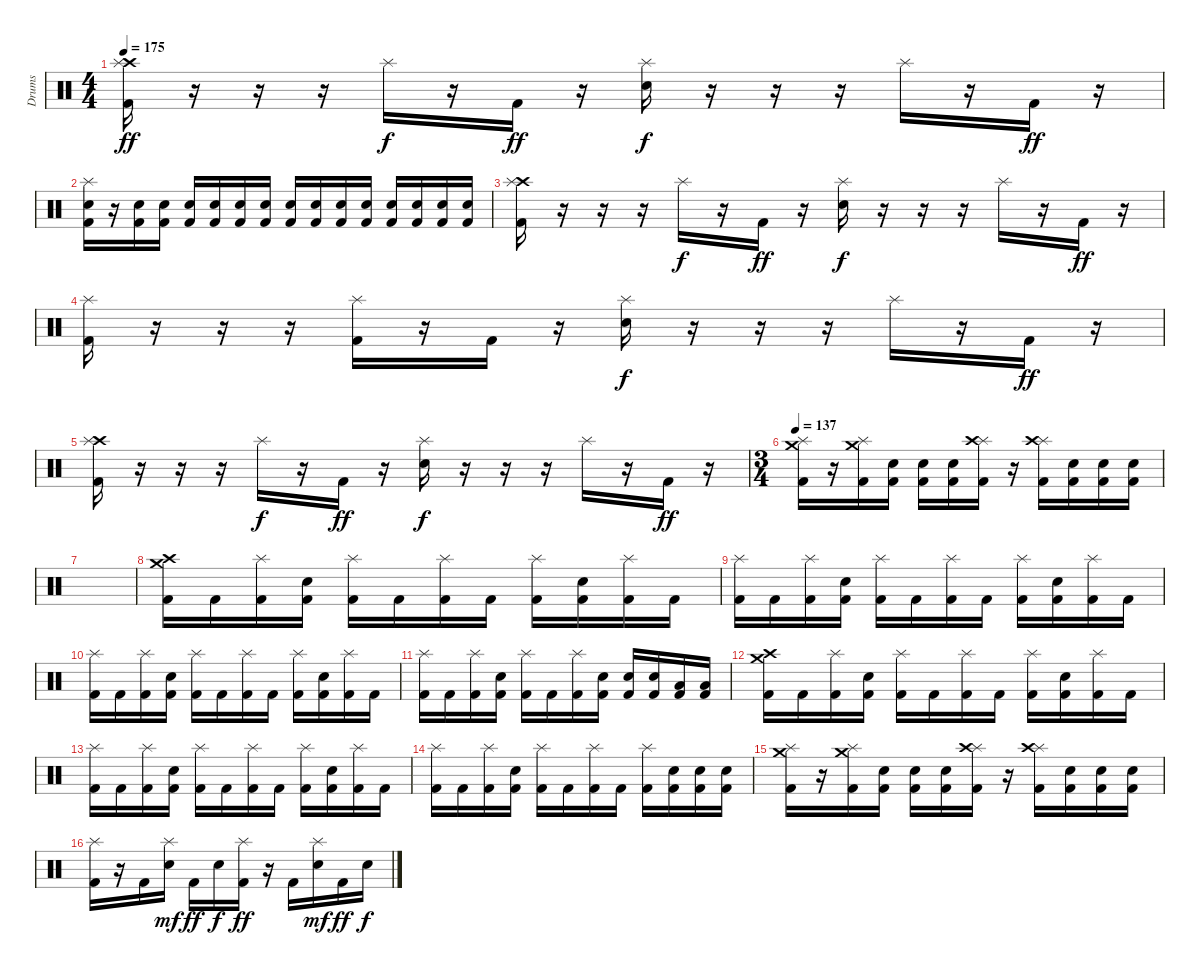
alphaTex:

\track ("Drums" "Drums") {instrument percussion}
\staff {score}
\articulation defaults
\ts (4 4)
\tempo 175
\clef neutral
\ks c
("Crash high (hit)" "Splash (hit)" "Kick (hit) 2").16{dy ff} r.16 r.16 r.16 "Splash (hit)".16{dy f} r.16 "Kick (hit) 2".16{dy ff} r.16 ("Splash (hit)" "Snare (hit) 2").16{dy f} r.16 r.16 r.16 "Splash (hit)".16 r.16 "Kick (hit) 2".16{dy ff} r.16 |
("Splash (hit)" "Snare (hit) 2" "Kick (hit) 2").16 r.16 ("Snare (hit) 2" "Kick (hit) 2").16 ("Snare (hit) 2" "Kick (hit) 2").16 ("Snare (hit) 2" "Kick (hit) 2").16 ("Snare (hit) 2" "Kick (hit) 2").16 ("Snare (hit) 2" "Kick (hit) 2").16 ("Snare (hit) 2" "Kick (hit) 2").16 ("Snare (hit) 2" "Kick (hit) 2").16 ("Snare (hit) 2" "Kick (hit) 2").16 ("Snare (hit) 2" "Kick (hit) 2").16 ("Snare (hit) 2" "Kick (hit) 2").16 ("Snare (hit) 2" "Kick (hit) 2").16 ("Snare (hit) 2" "Kick (hit) 2").16 ("Snare (hit) 2" "Kick (hit) 2").16 ("Snare (hit) 2" "Kick (hit) 2").16 |
("Crash high (hit)" "Splash (hit)" "Kick (hit) 2").16 r.16 r.16 r.16 "Splash (hit)".16{dy f} r.16 "Kick (hit) 2".16{dy ff} r.16 ("Splash (hit)" "Snare (hit) 2").16{dy f} r.16 r.16 r.16 "Splash (hit)".16 r.16 "Kick (hit) 2".16{dy ff} r.16 |
("Splash (hit)" "Kick (hit) 2").16 r.16 r.16 r.16 ("Splash (hit)" "Kick (hit) 2").16 r.16 "Kick (hit) 2".16 r.16 ("Splash (hit)" "Snare (hit) 2").16{dy f} r.16 r.16 r.16 "Splash (hit)".16 r.16 "Kick (hit) 2".16{dy ff} r.16 |
("Crash high (hit)" "Splash (hit)" "Kick (hit) 2").16 r.16 r.16 r.16 "Splash (hit)".16{dy f} r.16 "Kick (hit) 2".16{dy ff} r.16 ("Splash (hit)" "Snare (hit) 2").16{dy f} r.16 r.16 r.16 "Splash (hit)".16 r.16 "Kick (hit) 2".16{dy ff} r.16 |
\ts (3 4)
\tempo 137
("Splash (hit)" "Crash medium (hit)" "Kick (hit) 2").16 r.16 ("Splash (hit)" "Crash medium (hit)" "Kick (hit) 2").16 ("Snare (hit) 2" "Kick (hit) 2").16 ("Snare (hit) 2" "Kick (hit) 2").16 ("Snare (hit) 2" "Kick (hit) 2").16 ("Splash (hit)" "Crash high (hit)" "Kick (hit) 2").16 r.16 ("Splash (hit)" "Crash high (hit)" "Kick (hit) 2").16 ("Snare (hit) 2" "Kick (hit) 2").16 ("Snare (hit) 2" "Kick (hit) 2").16 ("Snare (hit) 2" "Kick (hit) 2").16 |
|
("Crash medium (hit)" "Crash high (hit)" "Kick (hit) 2").16 "Kick (hit) 2".16 ("Splash (hit)" "Kick (hit) 2").16 ("Snare (hit) 2" "Kick (hit) 2").16 ("Splash (hit)" "Kick (hit) 2").16 "Kick (hit) 2".16 ("Splash (hit)" "Kick (hit) 2").16 "Kick (hit) 2".16 ("Splash (hit)" "Kick (hit) 2").16 ("Snare (hit) 2" "Kick (hit) 2").16 ("Splash (hit)" "Kick (hit) 2").16 "Kick (hit) 2".16 |
("Splash (hit)" "Kick (hit) 2").16 "Kick (hit) 2".16 ("Splash (hit)" "Kick (hit) 2").16 ("Snare (hit) 2" "Kick (hit) 2").16 ("Splash (hit)" "Kick (hit) 2").16 "Kick (hit) 2".16 ("Splash (hit)" "Kick (hit) 2").16 "Kick (hit) 2".16 ("Splash (hit)" "Kick (hit) 2").16 ("Snare (hit) 2" "Kick (hit) 2").16 ("Splash (hit)" "Kick (hit) 2").16 "Kick (hit) 2".16 |
("Splash (hit)" "Kick (hit) 2").16 "Kick (hit) 2".16 ("Splash (hit)" "Kick (hit) 2").16 ("Snare (hit) 2" "Kick (hit) 2").16 ("Splash (hit)" "Kick (hit) 2").16 "Kick (hit) 2".16 ("Splash (hit)" "Kick (hit) 2").16 "Kick (hit) 2".16 ("Splash (hit)" "Kick (hit) 2").16 ("Snare (hit) 2" "Kick (hit) 2").16 ("Splash (hit)" "Kick (hit) 2").16 "Kick (hit) 2".16 |
("Splash (hit)" "Kick (hit) 2").16 "Kick (hit) 2".16 ("Splash (hit)" "Kick (hit) 2").16 ("Snare (hit) 2" "Kick (hit) 2").16 ("Splash (hit)" "Kick (hit) 2").16 "Kick (hit) 2".16 ("Splash (hit)" "Kick (hit) 2").16 ("Snare (hit) 2" "Kick (hit) 2").16 ("Snare (hit) 2" "Kick (hit) 2").16 ("Snare (hit) 2" "Kick (hit) 2").16 ("Low Tom (hit)" "Kick (hit) 2").16 ("Low Tom (hit)" "Kick (hit) 2").16 |
("Crash medium (hit)" "Crash high (hit)" "Kick (hit) 2").16 "Kick (hit) 2".16 ("Splash (hit)" "Kick (hit) 2").16 ("Snare (hit) 2" "Kick (hit) 2").16 ("Splash (hit)" "Kick (hit) 2").16 "Kick (hit) 2".16 ("Splash (hit)" "Kick (hit) 2").16 "Kick (hit) 2".16 ("Splash (hit)" "Kick (hit) 2").16 ("Snare (hit) 2" "Kick (hit) 2").16 ("Splash (hit)" "Kick (hit) 2").16 "Kick (hit) 2".16 |
("Splash (hit)" "Kick (hit) 2").16 "Kick (hit) 2".16 ("Splash (hit)" "Kick (hit) 2").16 ("Snare (hit) 2" "Kick (hit) 2").16 ("Splash (hit)" "Kick (hit) 2").16 "Kick (hit) 2".16 ("Splash (hit)" "Kick (hit) 2").16 "Kick (hit) 2".16 ("Splash (hit)" "Kick (hit) 2").16 ("Snare (hit) 2" "Kick (hit) 2").16 ("Splash (hit)" "Kick (hit) 2").16 "Kick (hit) 2".16 |
("Splash (hit)" "Kick (hit) 2").16 "Kick (hit) 2".16 ("Splash (hit)" "Kick (hit) 2").16 ("Snare (hit) 2" "Kick (hit) 2").16 ("Splash (hit)" "Kick (hit) 2").16 "Kick (hit) 2".16 ("Splash (hit)" "Kick (hit) 2").16 "Kick (hit) 2".16 ("Splash (hit)" "Kick (hit) 2").16 ("Snare (hit) 2" "Kick (hit) 2").16 ("Snare (hit) 2" "Kick (hit) 2").16 ("Snare (hit) 2" "Kick (hit) 2").16 |
("Splash (hit)" "Crash medium (hit)" "Kick (hit) 2").16 r.16 ("Splash (hit)" "Crash medium (hit)" "Kick (hit) 2").16 ("Snare (hit) 2" "Kick (hit) 2").16 ("Snare (hit) 2" "Kick (hit) 2").16 ("Snare (hit) 2" "Kick (hit) 2").16 ("Splash (hit)" "Crash high (hit)" "Kick (hit) 2").16 r.16 ("Splash (hit)" "Crash high (hit)" "Kick (hit) 2").16 ("Snare (hit) 2" "Kick (hit) 2").16 ("Snare (hit) 2" "Kick (hit) 2").16 ("Snare (hit) 2" "Kick (hit) 2").16 |
("Splash (hit)" "Kick (hit) 2").16 r.16 "Kick (hit) 2".16 ("Splash (hit)" "Snare (hit) 2").16{dy mf} "Kick (hit) 2".16{dy ff} "Snare (hit) 2".16{dy f} ("Splash (hit)" "Kick (hit) 2").16{dy ff} r.16 "Kick (hit) 2".16 ("Splash (hit)" "Snare (hit) 2").16{dy mf} "Kick (hit) 2".16{dy ff} "Snare (hit) 2".16{dy f}
